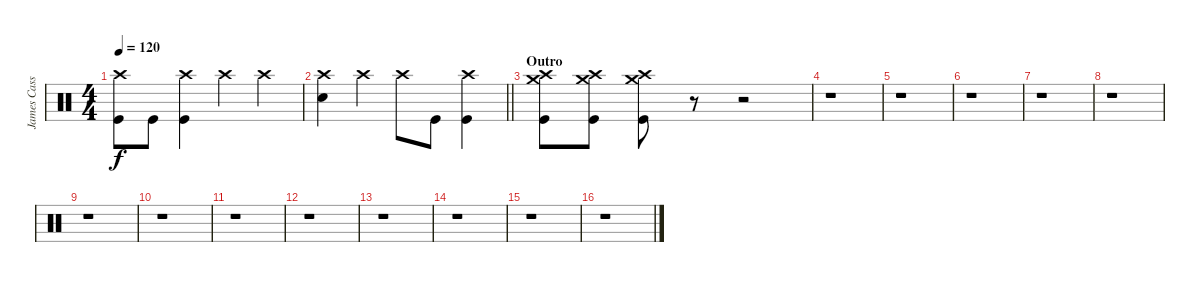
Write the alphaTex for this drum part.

\track ("James Cassells" "James Cass") {instrument percussion}
\staff {score}
\articulation defaults
\ts (4 4)
\tempo 120
\clef neutral
\ks c
("Crash high (hit)" "Kick (hit)").8{dy f} "Kick (hit)".8 ("Crash high (hit)" "Kick (hit)").4 "Crash high (hit)".4 "Crash high (hit)".4 |
\barLineRight lightlight
("Crash high (hit)" "Snare (hit) 2").4 "Crash high (hit)".4 "Crash high (hit)".8 "Kick (hit)".8 ("Crash high (hit)" "Kick (hit)").4 |
\section ("" "Outro")
("Crash high (hit)" "Crash medium (hit)" "Kick (hit)").8 ("Crash high (hit)" "Crash medium (hit)" "Kick (hit)").8 ("Crash high (hit)" "Crash medium (hit)" "Kick (hit)").8 r.8 r.2 |
r.1 |
r.1 |
r.1 |
r.1 |
r.1 |
r.1 |
r.1 |
r.1 |
r.1 |
r.1 |
r.1 |
r.1 |
r.1
